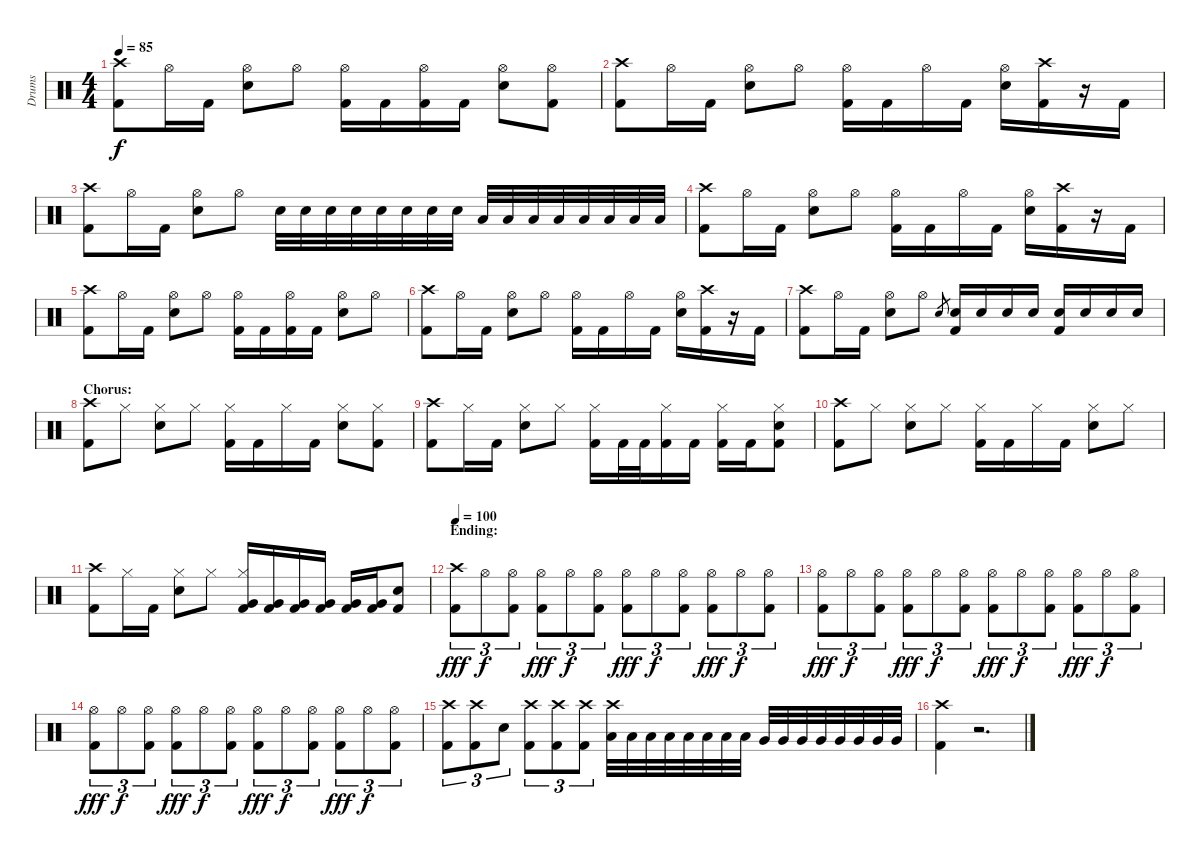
\track ("Drums" "Drums") {instrument percussion}
\staff {score}
\articulation defaults
\ts (4 4)
\tempo 85
\clef neutral
\ks c
("Crash high (hit)" "Kick (hit) 2").8{dy f} "Hi-Hat (open)".16 "Kick (hit) 2".16 ("Hi-Hat (open)" "Electric Snare (hit)").8 "Hi-Hat (open)".8 ("Hi-Hat (open)" "Kick (hit) 2").16 "Kick (hit) 2".16 ("Hi-Hat (open)" "Kick (hit) 2").16 "Kick (hit) 2".16 ("Hi-Hat (open)" "Electric Snare (hit)").8 ("Hi-Hat (open)" "Kick (hit) 2").8 |
("Crash high (hit)" "Kick (hit) 2").8 "Hi-Hat (open)".16 "Kick (hit) 2".16 ("Hi-Hat (open)" "Electric Snare (hit)").8 "Hi-Hat (open)".8 ("Hi-Hat (open)" "Kick (hit) 2").16 "Kick (hit) 2".16 "Hi-Hat (open)".16 "Kick (hit) 2".16 ("Hi-Hat (open)" "Electric Snare (hit)").16 ("Crash high (hit)" "Kick (hit) 2").16 r.16 "Kick (hit) 2".16 |
("Crash high (hit)" "Kick (hit) 2").8 "Hi-Hat (open)".16 "Kick (hit) 2".16 ("Hi-Hat (open)" "Electric Snare (hit)").8 "Hi-Hat (open)".8 "Electric Snare (hit)".32 "Electric Snare (hit)".32 "Electric Snare (hit)".32 "Electric Snare (hit)".32 "Electric Snare (hit)".32 "Electric Snare (hit)".32 "Electric Snare (hit)".32 "Electric Snare (hit)".32 "Low Tom (hit)".32 "Low Tom (hit)".32 "Low Tom (hit)".32 "Low Tom (hit)".32 "Low Tom (hit)".32 "Low Tom (hit)".32 "Low Tom (hit)".32 "Low Tom (hit)".32 |
("Crash high (hit)" "Kick (hit) 2").8 "Hi-Hat (open)".16 "Kick (hit) 2".16 ("Hi-Hat (open)" "Electric Snare (hit)").8 "Hi-Hat (open)".8 ("Hi-Hat (open)" "Kick (hit) 2").16 "Kick (hit) 2".16 "Hi-Hat (open)".16 "Kick (hit) 2".16 ("Hi-Hat (open)" "Electric Snare (hit)").16 ("Crash high (hit)" "Kick (hit) 2").16 r.16 "Kick (hit) 2".16 |
("Crash high (hit)" "Kick (hit) 2").8 "Hi-Hat (open)".16 "Kick (hit) 2".16 ("Hi-Hat (open)" "Electric Snare (hit)").8 "Hi-Hat (open)".8 ("Hi-Hat (open)" "Kick (hit) 2").16 "Kick (hit) 2".16 ("Hi-Hat (open)" "Kick (hit) 2").16 "Kick (hit) 2".16 ("Hi-Hat (open)" "Electric Snare (hit)").8 "Hi-Hat (open)".8 |
("Crash high (hit)" "Kick (hit) 2").8 "Hi-Hat (open)".16 "Kick (hit) 2".16 ("Hi-Hat (open)" "Electric Snare (hit)").8 "Hi-Hat (open)".8 ("Hi-Hat (open)" "Kick (hit) 2").16 "Kick (hit) 2".16 "Hi-Hat (open)".16 "Kick (hit) 2".16 ("Hi-Hat (open)" "Electric Snare (hit)").16 ("Crash high (hit)" "Kick (hit) 2").16 r.16 "Kick (hit) 2".16 |
("Crash high (hit)" "Kick (hit) 2").8 "Hi-Hat (open)".16 "Kick (hit) 2".16 ("Hi-Hat (open)" "Electric Snare (hit)").8 "Hi-Hat (open)".8 "Electric Snare (hit)".8{gr} ("Electric Snare (hit)" "Kick (hit) 2").16 "Electric Snare (hit)".16 "Electric Snare (hit)".16 "Electric Snare (hit)".16 ("Electric Snare (hit)" "Kick (hit) 2").16 "Electric Snare (hit)".16 "Electric Snare (hit)".16 "Electric Snare (hit)".16 |
\section ("" "Chorus:")
("Crash high (hit)" "Kick (hit) 2").8 "Hi-Hat (closed)".8 ("Hi-Hat (closed)" "Electric Snare (hit)").8 "Hi-Hat (closed)".8 ("Hi-Hat (closed)" "Kick (hit) 2").16 "Kick (hit) 2".16 "Hi-Hat (closed)".16 "Kick (hit) 2".16 ("Hi-Hat (closed)" "Electric Snare (hit)").8 ("Hi-Hat (closed)" "Kick (hit) 2").8 |
("Crash high (hit)" "Kick (hit) 2").8 "Hi-Hat (closed)".16 "Kick (hit) 2".16 ("Hi-Hat (closed)" "Electric Snare (hit)").8 "Hi-Hat (closed)".8 ("Hi-Hat (closed)" "Kick (hit) 2").16 "Kick (hit) 2".32 "Kick (hit) 2".32 ("Hi-Hat (closed)" "Kick (hit) 2").16 "Kick (hit) 2".16 ("Hi-Hat (closed)" "Kick (hit) 2").16 "Kick (hit) 2".16 ("Hi-Hat (closed)" "Electric Snare (hit)" "Kick (hit) 2").8 |
("Crash high (hit)" "Kick (hit) 2").8 "Hi-Hat (closed)".8 ("Hi-Hat (closed)" "Electric Snare (hit)").8 "Hi-Hat (closed)".8 ("Hi-Hat (closed)" "Kick (hit) 2").16 "Kick (hit) 2".16 "Hi-Hat (closed)".16 "Kick (hit) 2".16 ("Hi-Hat (closed)" "Electric Snare (hit)").8 "Hi-Hat (closed)".8 |
("Crash high (hit)" "Kick (hit) 2").8 "Hi-Hat (closed)".16 "Kick (hit) 2".16 ("Hi-Hat (closed)" "Electric Snare (hit)").8 "Hi-Hat (closed)".8 ("Hi-Hat (closed)" "Very Low Tom (hit)" "Kick (hit) 2").16 ("Very Low Tom (hit)" "Kick (hit) 2").16 ("Very Low Tom (hit)" "Kick (hit) 2").16 ("Very Low Tom (hit)" "Kick (hit) 2").16 ("Very Low Tom (hit)" "Kick (hit) 2").16 ("Very Low Tom (hit)" "Kick (hit) 2").16 ("Electric Snare (hit)" "Kick (hit) 2").8 |
\section ("" "Ending:")
\tempo 100
("Crash high (hit)" "Kick (hit) 2").8{tu (3 2) dy fff} "Hi-Hat (open)".8{tu (3 2) dy f} ("Hi-Hat (open)" "Kick (hit) 2").8{tu (3 2)} ("Hi-Hat (open)" "Kick (hit) 2").8{tu (3 2) dy fff} "Hi-Hat (open)".8{tu (3 2) dy f} ("Hi-Hat (open)" "Kick (hit) 2").8{tu (3 2)} ("Hi-Hat (open)" "Kick (hit) 2").8{tu (3 2) dy fff} "Hi-Hat (open)".8{tu (3 2) dy f} ("Hi-Hat (open)" "Kick (hit) 2").8{tu (3 2)} ("Hi-Hat (open)" "Kick (hit) 2").8{tu (3 2) dy fff} "Hi-Hat (open)".8{tu (3 2) dy f} ("Hi-Hat (open)" "Kick (hit) 2").8{tu (3 2)} |
("Hi-Hat (open)" "Kick (hit) 2").8{tu (3 2) dy fff} "Hi-Hat (open)".8{tu (3 2) dy f} ("Hi-Hat (open)" "Kick (hit) 2").8{tu (3 2)} ("Hi-Hat (open)" "Kick (hit) 2").8{tu (3 2) dy fff} "Hi-Hat (open)".8{tu (3 2) dy f} ("Hi-Hat (open)" "Kick (hit) 2").8{tu (3 2)} ("Hi-Hat (open)" "Kick (hit) 2").8{tu (3 2) dy fff} "Hi-Hat (open)".8{tu (3 2) dy f} ("Hi-Hat (open)" "Kick (hit) 2").8{tu (3 2)} ("Hi-Hat (open)" "Kick (hit) 2").8{tu (3 2) dy fff} "Hi-Hat (open)".8{tu (3 2) dy f} ("Hi-Hat (open)" "Kick (hit) 2").8{tu (3 2)} |
("Hi-Hat (open)" "Kick (hit) 2").8{tu (3 2) dy fff} "Hi-Hat (open)".8{tu (3 2) dy f} ("Hi-Hat (open)" "Kick (hit) 2").8{tu (3 2)} ("Hi-Hat (open)" "Kick (hit) 2").8{tu (3 2) dy fff} "Hi-Hat (open)".8{tu (3 2) dy f} ("Hi-Hat (open)" "Kick (hit) 2").8{tu (3 2)} ("Hi-Hat (open)" "Kick (hit) 2").8{tu (3 2) dy fff} "Hi-Hat (open)".8{tu (3 2) dy f} ("Hi-Hat (open)" "Kick (hit) 2").8{tu (3 2)} ("Hi-Hat (open)" "Kick (hit) 2").8{tu (3 2) dy fff} "Hi-Hat (open)".8{tu (3 2) dy f} ("Hi-Hat (open)" "Kick (hit) 2").8{tu (3 2)} |
("Crash high (hit)" "Kick (hit) 2").8{tu (3 2)} ("Crash high (hit)" "Kick (hit) 2").8{tu (3 2)} "Electric Snare (hit)".8{tu (3 2)} ("Crash high (hit)" "Kick (hit) 2").8{tu (3 2)} ("Crash high (hit)" "Kick (hit) 2").8{tu (3 2)} ("Crash high (hit)" "Kick (hit) 2").8{tu (3 2)} ("Crash high (hit)" "Low Tom (hit)").32 "Low Tom (hit)".32 "Low Tom (hit)".32 "Low Tom (hit)".32 "Low Tom (hit)".32 "Low Tom (hit)".32 "Low Tom (hit)".32 "Low Tom (hit)".32 "Very Low Tom (hit)".32 "Very Low Tom (hit)".32 "Very Low Tom (hit)".32 "Very Low Tom (hit)".32 "Very Low Tom (hit)".32 "Very Low Tom (hit)".32 "Very Low Tom (hit)".32 "Very Low Tom (hit)".32 |
("Crash high (hit)" "Kick (hit) 2").4 r.2{d}
